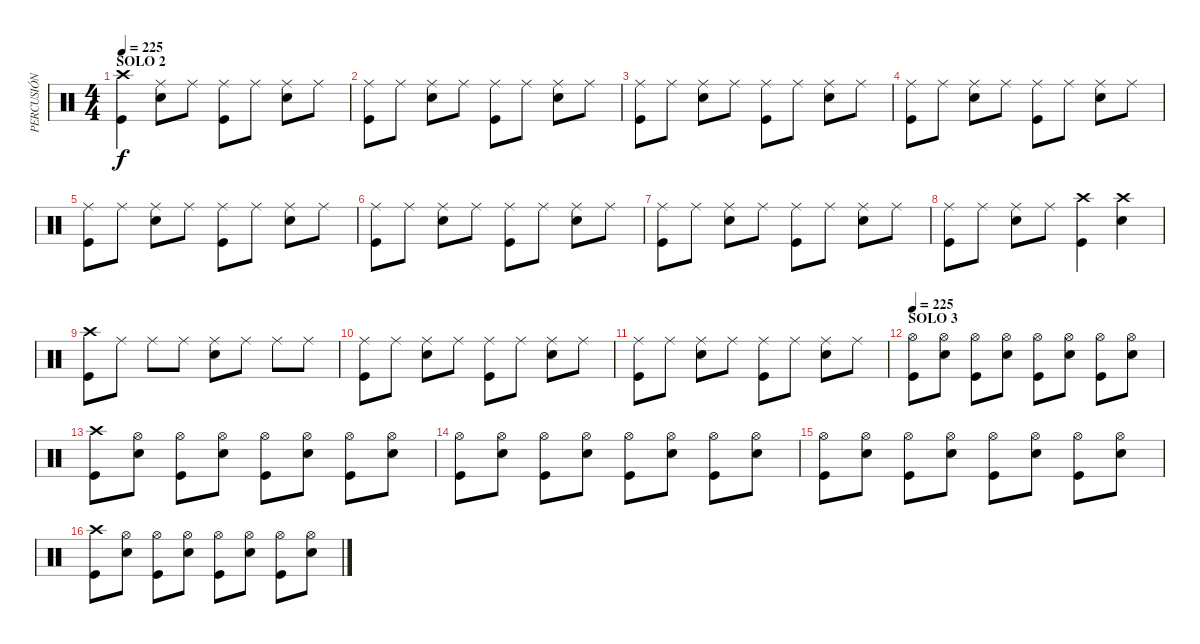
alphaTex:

\track ("PERCUSIÓN" "PERCUSIÓN") {instrument percussion}
\staff {score}
\articulation defaults
\ts (4 4)
\section ("" "SOLO 2")
\tempo 225
\clef neutral
\ks c
("Crash high (hit)" "Kick (hit)").4{dy f} ("Ride (middle)" "Snare (hit) 2").8 "Ride (middle)".8 ("Ride (middle)" "Kick (hit)").8 "Ride (middle)".8 ("Ride (middle)" "Snare (hit) 2").8 "Ride (middle)".8 |
("Ride (middle)" "Kick (hit)").8 "Ride (middle)".8 ("Ride (middle)" "Snare (hit) 2").8 "Ride (middle)".8 ("Ride (middle)" "Kick (hit)").8 "Ride (middle)".8 ("Ride (middle)" "Snare (hit) 2").8 "Ride (middle)".8 |
("Ride (middle)" "Kick (hit)").8 "Ride (middle)".8 ("Ride (middle)" "Snare (hit) 2").8 "Ride (middle)".8 ("Ride (middle)" "Kick (hit)").8 "Ride (middle)".8 ("Ride (middle)" "Snare (hit) 2").8 "Ride (middle)".8 |
("Ride (middle)" "Kick (hit)").8 "Ride (middle)".8 ("Ride (middle)" "Snare (hit) 2").8 "Ride (middle)".8 ("Ride (middle)" "Kick (hit)").8 "Ride (middle)".8 ("Ride (middle)" "Snare (hit) 2").8 "Ride (middle)".8 |
("Ride (middle)" "Kick (hit)").8 "Ride (middle)".8 ("Ride (middle)" "Snare (hit) 2").8 "Ride (middle)".8 ("Ride (middle)" "Kick (hit)").8 "Ride (middle)".8 ("Ride (middle)" "Snare (hit) 2").8 "Ride (middle)".8 |
("Ride (middle)" "Kick (hit)").8 "Ride (middle)".8 ("Ride (middle)" "Snare (hit) 2").8 "Ride (middle)".8 ("Ride (middle)" "Kick (hit)").8 "Ride (middle)".8 ("Ride (middle)" "Snare (hit) 2").8 "Ride (middle)".8 |
("Ride (middle)" "Kick (hit)").8 "Ride (middle)".8 ("Ride (middle)" "Snare (hit) 2").8 "Ride (middle)".8 ("Ride (middle)" "Kick (hit)").8 "Ride (middle)".8 ("Ride (middle)" "Snare (hit) 2").8 "Ride (middle)".8 |
("Ride (middle)" "Kick (hit)").8 "Ride (middle)".8 ("Ride (middle)" "Snare (hit) 2").8 "Ride (middle)".8 ("Crash high (hit)" "Kick (hit)").4 ("Crash high (hit)" "Snare (hit) 2").4 |
("Crash high (hit)" "Kick (hit)").8 "Ride (middle)".8 "Ride (middle)".8 "Ride (middle)".8 ("Ride (middle)" "Snare (hit) 2").8 "Ride (middle)".8 "Ride (middle)".8 "Ride (middle)".8 |
("Ride (middle)" "Kick (hit)").8 "Ride (middle)".8 ("Ride (middle)" "Snare (hit) 2").8 "Ride (middle)".8 ("Ride (middle)" "Kick (hit)").8 "Ride (middle)".8 ("Ride (middle)" "Snare (hit) 2").8 "Ride (middle)".8 |
("Ride (middle)" "Kick (hit)").8 "Ride (middle)".8 ("Ride (middle)" "Snare (hit) 2").8 "Ride (middle)".8 ("Ride (middle)" "Kick (hit)").8 "Ride (middle)".8 ("Ride (middle)" "Snare (hit) 2").8 "Ride (middle)".8 |
\section ("" "SOLO 3")
\tempo 225
("Hi-Hat (open)" "Kick (hit)").8 ("Hi-Hat (open)" "Snare (hit) 2").8 ("Hi-Hat (open)" "Kick (hit)").8 ("Hi-Hat (open)" "Snare (hit) 2").8 ("Hi-Hat (open)" "Kick (hit)").8 ("Hi-Hat (open)" "Snare (hit) 2").8 ("Hi-Hat (open)" "Kick (hit)").8 ("Hi-Hat (open)" "Snare (hit) 2").8 |
("Crash high (hit)" "Kick (hit)").8 ("Hi-Hat (open)" "Snare (hit) 2").8 ("Hi-Hat (open)" "Kick (hit)").8 ("Hi-Hat (open)" "Snare (hit) 2").8 ("Hi-Hat (open)" "Kick (hit)").8 ("Hi-Hat (open)" "Snare (hit) 2").8 ("Hi-Hat (open)" "Kick (hit)").8 ("Hi-Hat (open)" "Snare (hit) 2").8 |
("Hi-Hat (open)" "Kick (hit)").8 ("Hi-Hat (open)" "Snare (hit) 2").8 ("Hi-Hat (open)" "Kick (hit)").8 ("Hi-Hat (open)" "Snare (hit) 2").8 ("Hi-Hat (open)" "Kick (hit)").8 ("Hi-Hat (open)" "Snare (hit) 2").8 ("Hi-Hat (open)" "Kick (hit)").8 ("Hi-Hat (open)" "Snare (hit) 2").8 |
("Hi-Hat (open)" "Kick (hit)").8 ("Hi-Hat (open)" "Snare (hit) 2").8 ("Hi-Hat (open)" "Kick (hit)").8 ("Hi-Hat (open)" "Snare (hit) 2").8 ("Hi-Hat (open)" "Kick (hit)").8 ("Hi-Hat (open)" "Snare (hit) 2").8 ("Hi-Hat (open)" "Kick (hit)").8 ("Hi-Hat (open)" "Snare (hit) 2").8 |
("Crash high (hit)" "Kick (hit)").8 ("Hi-Hat (open)" "Snare (hit) 2").8 ("Hi-Hat (open)" "Kick (hit)").8 ("Hi-Hat (open)" "Snare (hit) 2").8 ("Hi-Hat (open)" "Kick (hit)").8 ("Hi-Hat (open)" "Snare (hit) 2").8 ("Hi-Hat (open)" "Kick (hit)").8 ("Hi-Hat (open)" "Snare (hit) 2").8
